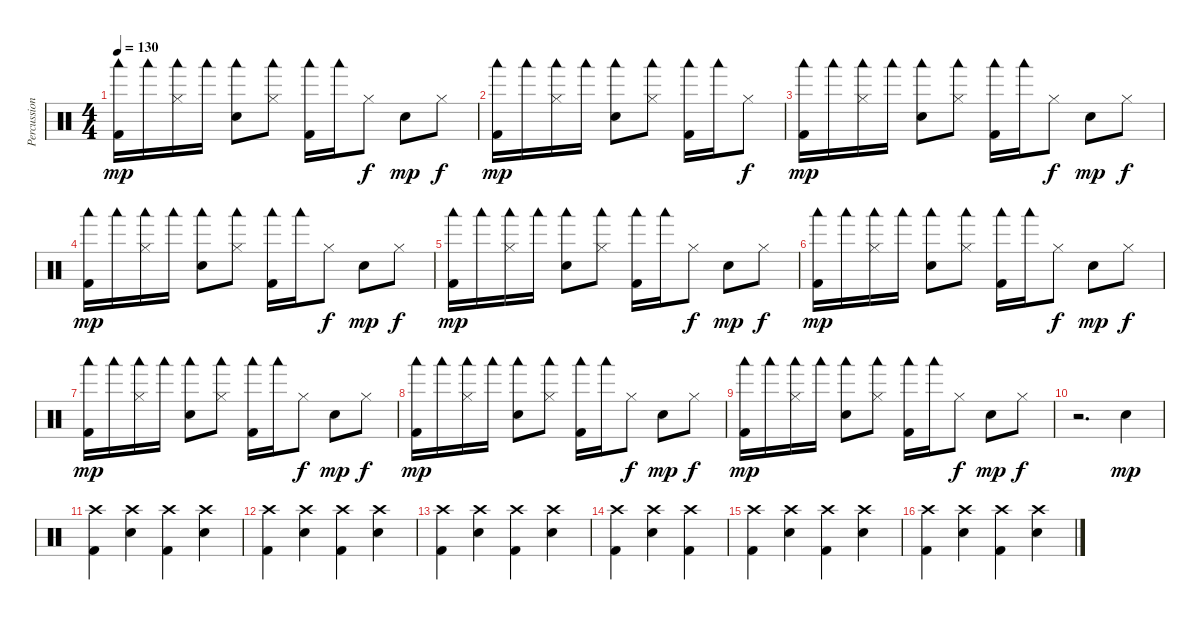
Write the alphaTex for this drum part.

\track ("Percussion" "Percussion") {instrument percussion}
\staff {score}
\articulation defaults
\ts (4 4)
\tempo 130
\clef neutral
\ks c
("Woodblock low (hit)" "Kick (hit) 2").16{dy mp} "Woodblock low (hit)".16 ("Woodblock low (hit)" "Hi-Hat (closed)").16 "Woodblock low (hit)".16 ("Woodblock low (hit)" "Electric Snare (hit)").8 ("Woodblock low (hit)" "Hi-Hat (closed)").8 ("Woodblock low (hit)" "Kick (hit) 2").16 "Woodblock low (hit)".16 "Hi-Hat (closed)".8{dy f} "Electric Snare (hit)".8{dy mp} "Hi-Hat (closed)".8{dy f} |
("Woodblock low (hit)" "Kick (hit) 2").16{dy mp} "Woodblock low (hit)".16 ("Woodblock low (hit)" "Hi-Hat (closed)").16 "Woodblock low (hit)".16 ("Woodblock low (hit)" "Electric Snare (hit)").8 ("Woodblock low (hit)" "Hi-Hat (closed)").8 ("Woodblock low (hit)" "Kick (hit) 2").16 "Woodblock low (hit)".16 "Hi-Hat (closed)".8{dy f} |
("Woodblock low (hit)" "Kick (hit) 2").16{dy mp} "Woodblock low (hit)".16 ("Woodblock low (hit)" "Hi-Hat (closed)").16 "Woodblock low (hit)".16 ("Woodblock low (hit)" "Electric Snare (hit)").8 ("Woodblock low (hit)" "Hi-Hat (closed)").8 ("Woodblock low (hit)" "Kick (hit) 2").16 "Woodblock low (hit)".16 "Hi-Hat (closed)".8{dy f} "Electric Snare (hit)".8{dy mp} "Hi-Hat (closed)".8{dy f} |
("Woodblock low (hit)" "Kick (hit) 2").16{dy mp} "Woodblock low (hit)".16 ("Woodblock low (hit)" "Hi-Hat (closed)").16 "Woodblock low (hit)".16 ("Woodblock low (hit)" "Electric Snare (hit)").8 ("Woodblock low (hit)" "Hi-Hat (closed)").8 ("Woodblock low (hit)" "Kick (hit) 2").16 "Woodblock low (hit)".16 "Hi-Hat (closed)".8{dy f} "Electric Snare (hit)".8{dy mp} "Hi-Hat (closed)".8{dy f} |
("Woodblock low (hit)" "Kick (hit) 2").16{dy mp} "Woodblock low (hit)".16 ("Woodblock low (hit)" "Hi-Hat (closed)").16 "Woodblock low (hit)".16 ("Woodblock low (hit)" "Electric Snare (hit)").8 ("Woodblock low (hit)" "Hi-Hat (closed)").8 ("Woodblock low (hit)" "Kick (hit) 2").16 "Woodblock low (hit)".16 "Hi-Hat (closed)".8{dy f} "Electric Snare (hit)".8{dy mp} "Hi-Hat (closed)".8{dy f} |
("Woodblock low (hit)" "Kick (hit) 2").16{dy mp} "Woodblock low (hit)".16 ("Woodblock low (hit)" "Hi-Hat (closed)").16 "Woodblock low (hit)".16 ("Woodblock low (hit)" "Electric Snare (hit)").8 ("Woodblock low (hit)" "Hi-Hat (closed)").8 ("Woodblock low (hit)" "Kick (hit) 2").16 "Woodblock low (hit)".16 "Hi-Hat (closed)".8{dy f} "Electric Snare (hit)".8{dy mp} "Hi-Hat (closed)".8{dy f} |
("Woodblock low (hit)" "Kick (hit) 2").16{dy mp} "Woodblock low (hit)".16 ("Woodblock low (hit)" "Hi-Hat (closed)").16 "Woodblock low (hit)".16 ("Woodblock low (hit)" "Electric Snare (hit)").8 ("Woodblock low (hit)" "Hi-Hat (closed)").8 ("Woodblock low (hit)" "Kick (hit) 2").16 "Woodblock low (hit)".16 "Hi-Hat (closed)".8{dy f} "Electric Snare (hit)".8{dy mp} "Hi-Hat (closed)".8{dy f} |
("Woodblock low (hit)" "Kick (hit) 2").16{dy mp} "Woodblock low (hit)".16 ("Woodblock low (hit)" "Hi-Hat (closed)").16 "Woodblock low (hit)".16 ("Woodblock low (hit)" "Electric Snare (hit)").8 ("Woodblock low (hit)" "Hi-Hat (closed)").8 ("Woodblock low (hit)" "Kick (hit) 2").16 "Woodblock low (hit)".16 "Hi-Hat (closed)".8{dy f} "Electric Snare (hit)".8{dy mp} "Hi-Hat (closed)".8{dy f} |
("Woodblock low (hit)" "Kick (hit) 2").16{dy mp} "Woodblock low (hit)".16 ("Woodblock low (hit)" "Hi-Hat (closed)").16 "Woodblock low (hit)".16 ("Woodblock low (hit)" "Electric Snare (hit)").8 ("Woodblock low (hit)" "Hi-Hat (closed)").8 ("Woodblock low (hit)" "Kick (hit) 2").16 "Woodblock low (hit)".16 "Hi-Hat (closed)".8{dy f} "Electric Snare (hit)".8{dy mp} "Hi-Hat (closed)".8{dy f} |
r.2{d} "Electric Snare (hit)".4{dy mp} |
("Crash high (hit)" "Kick (hit) 2").4 ("Crash high (hit)" "Snare (hit) 2").4 ("Crash high (hit)" "Kick (hit) 2").4 ("Crash high (hit)" "Snare (hit) 2").4 |
("Crash high (hit)" "Kick (hit) 2").4 ("Crash high (hit)" "Snare (hit) 2").4 ("Crash high (hit)" "Kick (hit) 2").4 ("Crash high (hit)" "Snare (hit) 2").4 |
("Crash high (hit)" "Kick (hit) 2").4 ("Crash high (hit)" "Snare (hit) 2").4 ("Crash high (hit)" "Kick (hit) 2").4 ("Crash high (hit)" "Snare (hit) 2").4 |
("Crash high (hit)" "Kick (hit) 2").4 ("Crash high (hit)" "Snare (hit) 2").4 ("Crash high (hit)" "Kick (hit) 2").4 |
("Crash high (hit)" "Kick (hit) 2").4 ("Crash high (hit)" "Snare (hit) 2").4 ("Crash high (hit)" "Kick (hit) 2").4 ("Crash high (hit)" "Snare (hit) 2").4 |
("Crash high (hit)" "Kick (hit) 2").4 ("Crash high (hit)" "Snare (hit) 2").4 ("Crash high (hit)" "Kick (hit) 2").4 ("Crash high (hit)" "Snare (hit) 2").4
